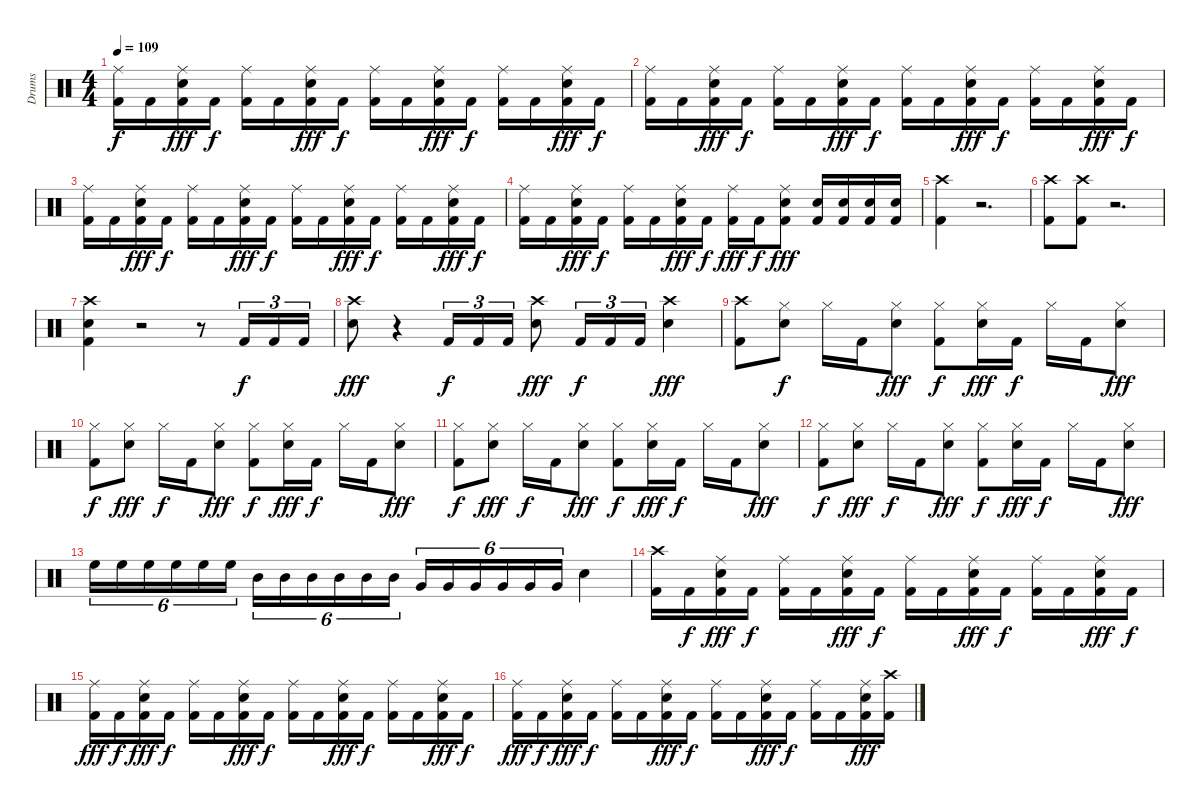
\track ("Drums" "Drums") {instrument percussion}
\staff {score}
\articulation defaults
\ts (4 4)
\tempo 109
\clef neutral
\ks c
("Ride (middle)" "Kick (hit) 2").16{dy f} "Kick (hit) 2".16 ("Ride (middle)" "Kick (hit) 2" "Snare (hit) 2").16{dy fff} "Kick (hit) 2".16{dy f} ("Kick (hit) 2" "Ride (middle)").16 "Kick (hit) 2".16 ("Ride (middle)" "Kick (hit) 2" "Snare (hit) 2").16{dy fff} "Kick (hit) 2".16{dy f} ("Kick (hit) 2" "Ride (middle)").16 "Kick (hit) 2".16 ("Ride (middle)" "Kick (hit) 2" "Snare (hit) 2").16{dy fff} "Kick (hit) 2".16{dy f} ("Kick (hit) 2" "Ride (middle)").16 "Kick (hit) 2".16 ("Ride (middle)" "Kick (hit) 2" "Snare (hit) 2").16{dy fff} "Kick (hit) 2".16{dy f} |
("Ride (middle)" "Kick (hit) 2").16 "Kick (hit) 2".16 ("Ride (middle)" "Kick (hit) 2" "Snare (hit) 2").16{dy fff} "Kick (hit) 2".16{dy f} ("Kick (hit) 2" "Ride (middle)").16 "Kick (hit) 2".16 ("Ride (middle)" "Kick (hit) 2" "Snare (hit) 2").16{dy fff} "Kick (hit) 2".16{dy f} ("Kick (hit) 2" "Ride (middle)").16 "Kick (hit) 2".16 ("Ride (middle)" "Kick (hit) 2" "Snare (hit) 2").16{dy fff} "Kick (hit) 2".16{dy f} ("Kick (hit) 2" "Ride (middle)").16 "Kick (hit) 2".16 ("Ride (middle)" "Kick (hit) 2" "Snare (hit) 2").16{dy fff} "Kick (hit) 2".16{dy f} |
("Ride (middle)" "Kick (hit) 2").16 "Kick (hit) 2".16 ("Ride (middle)" "Kick (hit) 2" "Snare (hit) 2").16{dy fff} "Kick (hit) 2".16{dy f} ("Kick (hit) 2" "Ride (middle)").16 "Kick (hit) 2".16 ("Ride (middle)" "Kick (hit) 2" "Snare (hit) 2").16{dy fff} "Kick (hit) 2".16{dy f} ("Kick (hit) 2" "Ride (middle)").16 "Kick (hit) 2".16 ("Ride (middle)" "Kick (hit) 2" "Snare (hit) 2").16{dy fff} "Kick (hit) 2".16{dy f} ("Kick (hit) 2" "Ride (middle)").16 "Kick (hit) 2".16 ("Ride (middle)" "Kick (hit) 2" "Snare (hit) 2").16{dy fff} "Kick (hit) 2".16{dy f} |
("Kick (hit) 2" "Ride (middle)").16 "Kick (hit) 2".16 ("Kick (hit) 2" "Snare (hit) 2" "Ride (middle)").16{dy fff} "Kick (hit) 2".16{dy f} ("Ride (middle)" "Kick (hit) 2").16 "Kick (hit) 2".16 ("Ride (middle)" "Kick (hit) 2" "Snare (hit) 2").16{dy fff} "Kick (hit) 2".16{dy f} ("Ride (middle)" "Kick (hit) 2").16{dy fff} "Kick (hit) 2".16{dy f} ("Kick (hit) 2" "Snare (hit) 2" "Ride (middle)").8{dy fff} ("Snare (hit) 2" "Kick (hit) 2").16 ("Snare (hit) 2" "Kick (hit) 2").16 ("Snare (hit) 2" "Kick (hit) 2").16 ("Snare (hit) 2" "Kick (hit) 2").16 |
("Crash high (hit)" "Kick (hit) 2").4 r.2{d} |
("Kick (hit) 2" "Crash high (hit)").8 ("Kick (hit) 2" "Crash high (hit)").8 r.2{d} |
("Crash high (hit)" "Snare (hit) 2" "Kick (hit) 2").4 r.2 r.8 "Kick (hit) 2".16{tu (3 2) dy f} "Kick (hit) 2".16{tu (3 2)} "Kick (hit) 2".16{tu (3 2)} |
("Snare (hit) 2" "Crash high (hit)").8{dy fff} r.4 "Kick (hit) 2".16{tu (3 2) dy f} "Kick (hit) 2".16{tu (3 2)} "Kick (hit) 2".16{tu (3 2)} ("Snare (hit) 2" "Crash high (hit)").8{dy fff} "Kick (hit) 2".16{tu (3 2) dy f} "Kick (hit) 2".16{tu (3 2)} "Kick (hit) 2".16{tu (3 2)} ("Snare (hit) 2" "Crash high (hit)").4{dy fff} |
("Kick (hit) 2" "Crash high (hit)").8 ("Snare (hit) 2" "Hi-Hat (closed)").8{dy f} "Hi-Hat (closed)".16 "Kick (hit) 2".16 ("Hi-Hat (closed)" "Snare (hit) 2").8{dy fff} ("Hi-Hat (closed)" "Kick (hit) 2").8{dy f} ("Hi-Hat (closed)" "Snare (hit) 2").16{dy fff} "Kick (hit) 2".16{dy f} "Hi-Hat (closed)".16 "Kick (hit) 2".16 ("Hi-Hat (closed)" "Snare (hit) 2").8{dy fff} |
("Hi-Hat (closed)" "Kick (hit) 2").8{dy f} ("Hi-Hat (closed)" "Snare (hit) 2").8{dy fff} "Hi-Hat (closed)".16{dy f} "Kick (hit) 2".16 ("Hi-Hat (closed)" "Snare (hit) 2").8{dy fff} ("Kick (hit) 2" "Hi-Hat (closed)").8{dy f} ("Snare (hit) 2" "Hi-Hat (closed)").16{dy fff} "Kick (hit) 2".16{dy f} "Hi-Hat (closed)".16 "Kick (hit) 2".16 ("Snare (hit) 2" "Hi-Hat (closed)").8{dy fff} |
("Kick (hit) 2" "Hi-Hat (closed)").8{dy f} ("Snare (hit) 2" "Hi-Hat (closed)").8{dy fff} "Hi-Hat (closed)".16{dy f} "Kick (hit) 2".16 ("Hi-Hat (closed)" "Snare (hit) 2").8{dy fff} ("Kick (hit) 2" "Hi-Hat (closed)").8{dy f} ("Hi-Hat (closed)" "Snare (hit) 2").16{dy fff} "Kick (hit) 2".16{dy f} "Hi-Hat (closed)".16 "Kick (hit) 2".16 ("Hi-Hat (closed)" "Snare (hit) 2").8{dy fff} |
("Hi-Hat (closed)" "Kick (hit) 2").8{dy f} ("Hi-Hat (closed)" "Snare (hit) 2").8{dy fff} "Hi-Hat (closed)".16{dy f} "Kick (hit) 2".16 ("Hi-Hat (closed)" "Snare (hit) 2").8{dy fff} ("Kick (hit) 2" "Hi-Hat (closed)").8{dy f} ("Hi-Hat (closed)" "Snare (hit) 2").16{dy fff} "Kick (hit) 2".16{dy f} "Hi-Hat (closed)".16 "Kick (hit) 2".16 ("Hi-Hat (closed)" "Snare (hit) 2").8{dy fff} |
"High Floor Tom (hit)".16{tu (6 4)} "High Floor Tom (hit)".16{tu (6 4)} "High Floor Tom (hit)".16{tu (6 4)} "High Floor Tom (hit)".16{tu (6 4)} "High Floor Tom (hit)".16{tu (6 4)} "High Floor Tom (hit)".16{tu (6 4)} "Mid Tom (hit)".16{tu (6 4)} "Mid Tom (hit)".16{tu (6 4)} "Mid Tom (hit)".16{tu (6 4)} "Mid Tom (hit)".16{tu (6 4)} "Mid Tom (hit)".16{tu (6 4)} "Mid Tom (hit)".16{tu (6 4)} "Very Low Tom (hit)".16{tu (6 4)} "Very Low Tom (hit)".16{tu (6 4)} "Very Low Tom (hit)".16{tu (6 4)} "Very Low Tom (hit)".16{tu (6 4)} "Very Low Tom (hit)".16{tu (6 4)} "Very Low Tom (hit)".16{tu (6 4)} "Snare (hit) 2".4 |
("Kick (hit) 2" "Crash high (hit)").16 "Kick (hit) 2".16{dy f} ("Kick (hit) 2" "Snare (hit) 2" "Ride (middle)").16{dy fff} "Kick (hit) 2".16{dy f} ("Kick (hit) 2" "Ride (middle)").16 "Kick (hit) 2".16 ("Ride (middle)" "Kick (hit) 2" "Snare (hit) 2").16{dy fff} "Kick (hit) 2".16{dy f} ("Kick (hit) 2" "Ride (middle)").16 "Kick (hit) 2".16 ("Kick (hit) 2" "Ride (middle)" "Snare (hit) 2").16{dy fff} "Kick (hit) 2".16{dy f} ("Ride (middle)" "Kick (hit) 2").16 "Kick (hit) 2".16 ("Ride (middle)" "Kick (hit) 2" "Snare (hit) 2").16{dy fff} "Kick (hit) 2".16{dy f} |
("Kick (hit) 2" "Ride (middle)").16{dy fff} "Kick (hit) 2".16{dy f} ("Kick (hit) 2" "Snare (hit) 2" "Ride (middle)").16{dy fff} "Kick (hit) 2".16{dy f} ("Kick (hit) 2" "Ride (middle)").16 "Kick (hit) 2".16 ("Kick (hit) 2" "Ride (middle)" "Snare (hit) 2").16{dy fff} "Kick (hit) 2".16{dy f} ("Kick (hit) 2" "Ride (middle)").16 "Kick (hit) 2".16 ("Kick (hit) 2" "Ride (middle)" "Snare (hit) 2").16{dy fff} "Kick (hit) 2".16{dy f} ("Kick (hit) 2" "Ride (middle)").16 "Kick (hit) 2".16 ("Ride (middle)" "Kick (hit) 2" "Snare (hit) 2").16{dy fff} "Kick (hit) 2".16{dy f} |
("Kick (hit) 2" "Ride (middle)").16{dy fff} "Kick (hit) 2".16{dy f} ("Ride (middle)" "Kick (hit) 2" "Snare (hit) 2").16{dy fff} "Kick (hit) 2".16{dy f} ("Kick (hit) 2" "Ride (middle)").16 "Kick (hit) 2".16 ("Kick (hit) 2" "Ride (middle)" "Snare (hit) 2").16{dy fff} "Kick (hit) 2".16{dy f} ("Kick (hit) 2" "Ride (middle)").16 "Kick (hit) 2".16 ("Snare (hit) 2" "Kick (hit) 2" "Ride (middle)").16{dy fff} "Kick (hit) 2".16{dy f} ("Ride (middle)" "Kick (hit) 2").16 "Kick (hit) 2".16 ("Kick (hit) 2" "Snare (hit) 2" "Ride (middle)").16{dy fff} ("Kick (hit) 2" "Crash high (hit)").16
